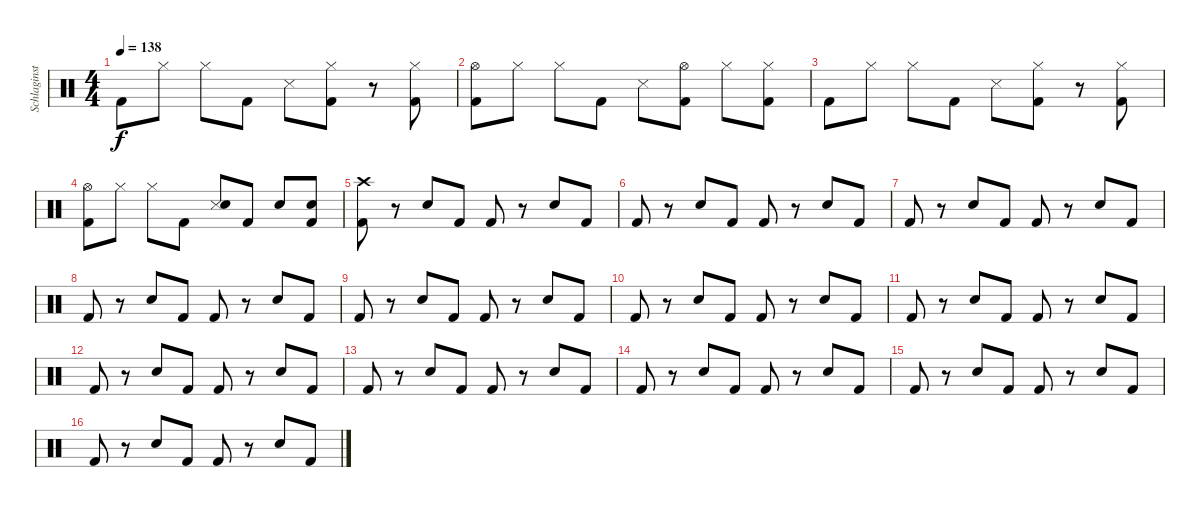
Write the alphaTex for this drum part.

\track ("Schlaginstrumente - Auswahl" "Schlaginst") {instrument percussion}
\staff {score}
\articulation defaults
\ts (4 4)
\tempo 138
\clef neutral
\ks c "Kick (hit) 2".8{dy f} "Hi-Hat (closed)".8 "Hi-Hat (closed)".8 "Kick (hit) 2".8 "Snare (side stick) 3".8
("Hi-Hat (closed)" "Kick (hit) 2").8 r.8 ("Hi-Hat (closed)" "Kick (hit) 2").8 |
("Hi-Hat (open)" "Kick (hit) 2").8 "Hi-Hat (closed)".8 "Hi-Hat (closed)".8 "Kick (hit) 2".8 "Snare (side stick) 3".8 ("Hi-Hat (open)" "Kick (hit) 2").8 "Hi-Hat (closed)".8 ("Hi-Hat (closed)" "Kick (hit) 2").8 |
"Kick (hit) 2".8 "Hi-Hat (closed)".8 "Hi-Hat (closed)".8 "Kick (hit) 2".8 "Snare (side stick) 3".8 ("Hi-Hat (closed)" "Kick (hit) 2").8 r.8 ("Hi-Hat (closed)" "Kick (hit) 2").8 |
("Hi-Hat (open)" "Kick (hit) 2").8 "Hi-Hat (closed)".8 "Hi-Hat (closed)".8 "Kick (hit) 2".8 ("Snare (side stick) 3" "Snare (hit) 2").8 "Kick (hit) 2".8 "Snare (hit) 2".8 ("Snare (hit) 2" "Kick (hit) 2").8 |
("Crash high (hit)" "Kick (hit) 2").8 r.8 "Snare (hit) 2".8 "Kick (hit) 2".8 "Kick (hit) 2".8 r.8 "Snare (hit) 2".8 "Kick (hit) 2".8 |
"Kick (hit) 2".8 r.8 "Snare (hit) 2".8 "Kick (hit) 2".8 "Kick (hit) 2".8 r.8 "Snare (hit) 2".8 "Kick (hit) 2".8 |
"Kick (hit) 2".8 r.8 "Snare (hit) 2".8 "Kick (hit) 2".8 "Kick (hit) 2".8 r.8 "Snare (hit) 2".8 "Kick (hit) 2".8 |
"Kick (hit) 2".8 r.8 "Snare (hit) 2".8 "Kick (hit) 2".8 "Kick (hit) 2".8 r.8 "Snare (hit) 2".8 "Kick (hit) 2".8 |
"Kick (hit) 2".8 r.8 "Snare (hit) 2".8 "Kick (hit) 2".8 "Kick (hit) 2".8 r.8 "Snare (hit) 2".8 "Kick (hit) 2".8 |
"Kick (hit) 2".8 r.8 "Snare (hit) 2".8 "Kick (hit) 2".8 "Kick (hit) 2".8 r.8 "Snare (hit) 2".8 "Kick (hit) 2".8 |
"Kick (hit) 2".8 r.8 "Snare (hit) 2".8 "Kick (hit) 2".8 "Kick (hit) 2".8 r.8 "Snare (hit) 2".8 "Kick (hit) 2".8 |
"Kick (hit) 2".8 r.8 "Snare (hit) 2".8 "Kick (hit) 2".8 "Kick (hit) 2".8 r.8 "Snare (hit) 2".8 "Kick (hit) 2".8 |
"Kick (hit) 2".8 r.8 "Snare (hit) 2".8 "Kick (hit) 2".8 "Kick (hit) 2".8 r.8 "Snare (hit) 2".8 "Kick (hit) 2".8 |
"Kick (hit) 2".8 r.8 "Snare (hit) 2".8 "Kick (hit) 2".8 "Kick (hit) 2".8 r.8 "Snare (hit) 2".8 "Kick (hit) 2".8 |
"Kick (hit) 2".8 r.8 "Snare (hit) 2".8 "Kick (hit) 2".8 "Kick (hit) 2".8 r.8 "Snare (hit) 2".8 "Kick (hit) 2".8 |
"Kick (hit) 2".8 r.8 "Snare (hit) 2".8 "Kick (hit) 2".8 "Kick (hit) 2".8 r.8 "Snare (hit) 2".8 "Kick (hit) 2".8
